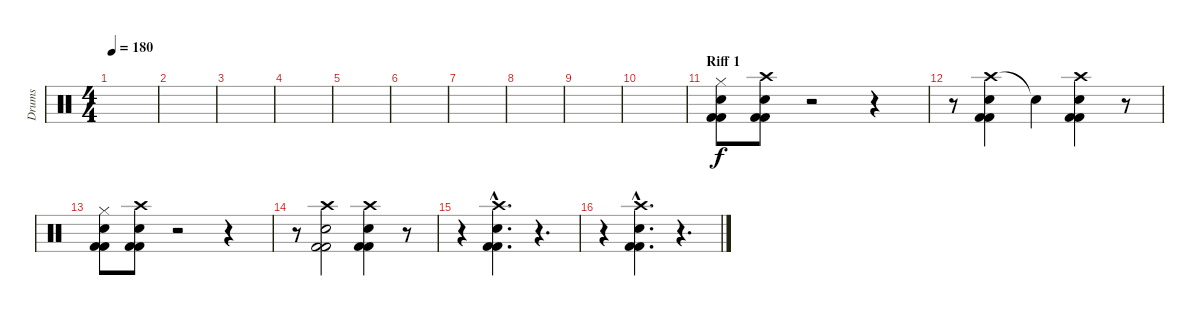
\track ("Drums" "Drums") {instrument percussion}
\staff {score}
\articulation defaults
\ts (4 4)
\tempo 180
\clef neutral
\ks c
|
|
|
|
|
|
|
|
|
|
\section ("" "Riff 1")
("Hi-Hat (closed)" "Snare (hit) 2" "Kick (hit) 2" "Kick (hit) 2").8 ("Crash high (hit)" "Snare (hit) 2" "Kick (hit) 2" "Kick (hit) 2").8 r.2 r.4 |
r.8 ("Crash high (hit)" "Snare (hit) 2" "Kick (hit) 2" "Kick (hit) 2").4 "Snare (hit)"{t}.4 ("Crash high (hit)" "Snare (hit) 2" "Kick (hit) 2" "Kick (hit) 2").4 r.8 |
("Hi-Hat (closed)" "Snare (hit) 2" "Kick (hit) 2" "Kick (hit) 2").8 ("Crash high (hit)" "Snare (hit) 2" "Kick (hit) 2" "Kick (hit) 2").8 r.2 r.4 |
r.8 ("Crash high (hit)" "Snare (hit) 2" "Kick (hit) 2" "Kick (hit) 2").2 ("Crash high (hit)" "Snare (hit) 2" "Kick (hit) 2" "Kick (hit) 2").4 r.8 |
r.4 ("Crash high (hit)"{hac} "Snare (hit) 2"{hac} "Kick (hit) 2"{hac} "Kick (hit) 2"{hac}).4{d} r.4{d} |
r.4 ("Crash high (hit)"{hac} "Snare (hit) 2"{hac} "Kick (hit) 2"{hac} "Kick (hit) 2"{hac}).4{d} r.4{d}
